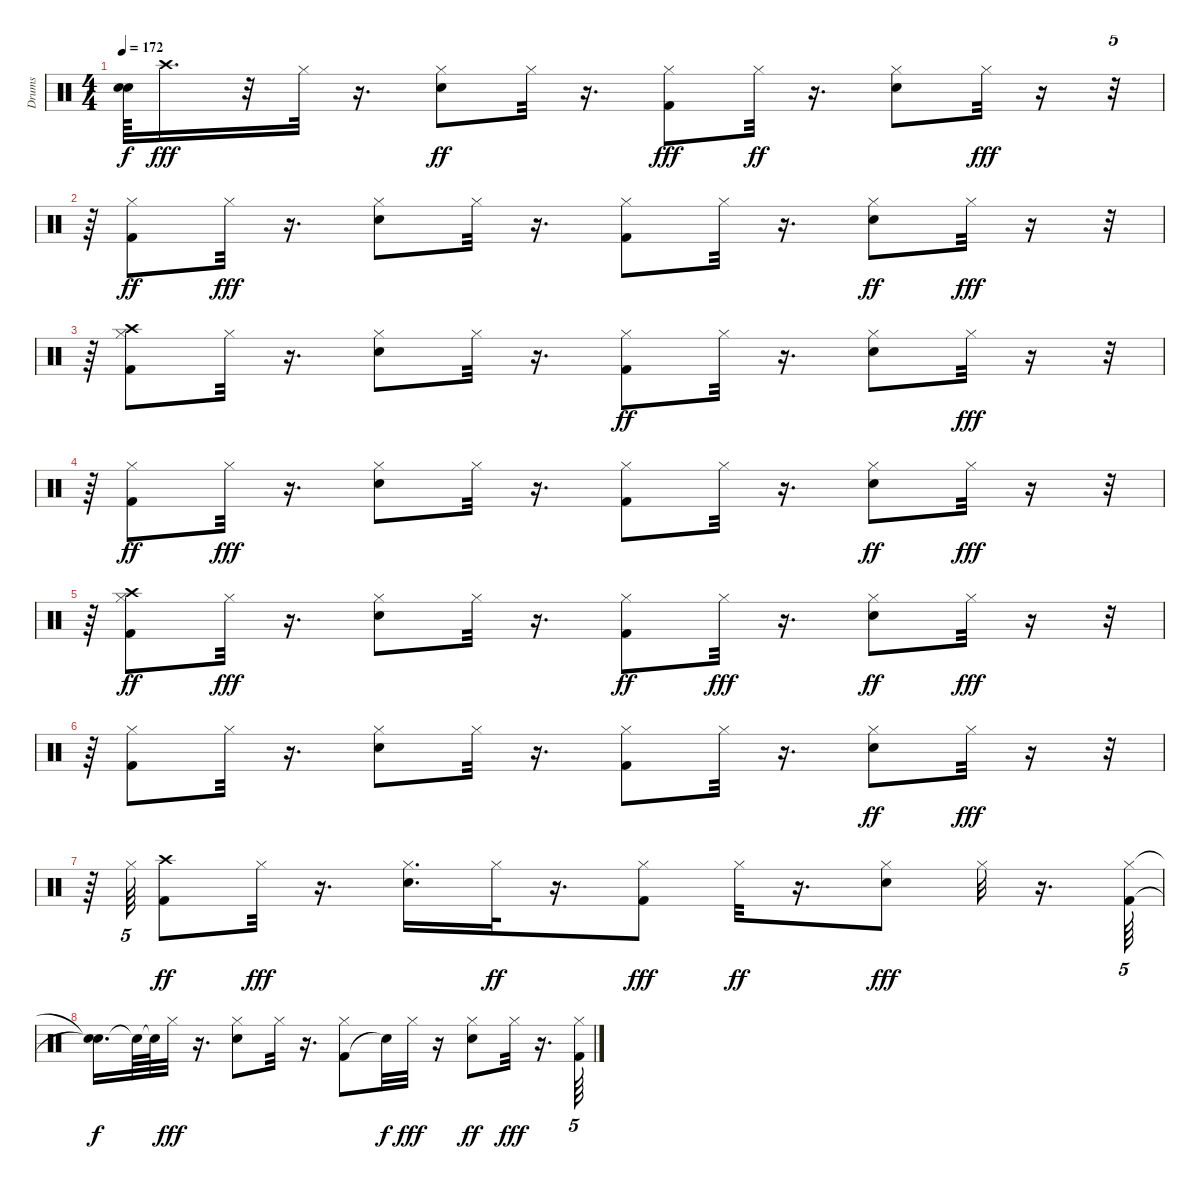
\track ("Drums" "Drums") {instrument percussion}
\staff {score}
\articulation defaults
\ts (4 4)
\tempo 172
\clef neutral
\ks c
("Snare (hit)"{t} "Snare (hit)"{t}).64{dy f} "Crash high (hit)".16{d dy fff} r.32 "Hi-Hat (closed)".32 r.16{d} ("Hi-Hat (closed)" "Electric Snare (hit)").8{dy ff} "Hi-Hat (closed)".32 r.16{d} ("Kick (hit) 2" "Hi-Hat (closed)").8{dy fff} "Hi-Hat (closed)".32{dy ff} r.16{d} ("Hi-Hat (closed)" "Electric Snare (hit)").8 "Hi-Hat (closed)".32{dy fff} r.16 r.32{tu (5 4)} |
r.64 ("Hi-Hat (closed)" "Kick (hit) 2").8{dy ff} "Hi-Hat (closed)".32{dy fff} r.16{d} ("Hi-Hat (closed)" "Electric Snare (hit)").8 "Hi-Hat (closed)".32 r.16{d} ("Hi-Hat (closed)" "Kick (hit) 2").8 "Hi-Hat (closed)".32 r.16{d} ("Hi-Hat (closed)" "Electric Snare (hit)").8{dy ff} "Hi-Hat (closed)".32{dy fff} r.16 r.32{tu (5 4)} |
r.64 ("Kick (hit) 2" "Crash high (hit)" "Hi-Hat (closed)").8 "Hi-Hat (closed)".32 r.16{d} ("Electric Snare (hit)" "Hi-Hat (closed)").8 "Hi-Hat (closed)".32 r.16{d} ("Hi-Hat (closed)" "Kick (hit) 2").8{dy ff} "Hi-Hat (closed)".32 r.16{d} ("Hi-Hat (closed)" "Electric Snare (hit)").8 "Hi-Hat (closed)".32{dy fff} r.16 r.32{tu (5 4)} |
r.64 ("Hi-Hat (closed)" "Kick (hit) 2").8{dy ff} "Hi-Hat (closed)".32{dy fff} r.16{d} ("Electric Snare (hit)" "Hi-Hat (closed)").8 "Hi-Hat (closed)".32 r.16{d} ("Hi-Hat (closed)" "Kick (hit) 2").8 "Hi-Hat (closed)".32 r.16{d} ("Hi-Hat (closed)" "Electric Snare (hit)").8{dy ff} "Hi-Hat (closed)".32{dy fff} r.16 r.32{tu (5 4)} |
r.64 ("Kick (hit) 2" "Hi-Hat (closed)" "Crash high (hit)").8{dy ff} "Hi-Hat (closed)".32{dy fff} r.16{d} ("Hi-Hat (closed)" "Electric Snare (hit)").8 "Hi-Hat (closed)".32 r.16{d} ("Hi-Hat (closed)" "Kick (hit) 2").8{dy ff} "Hi-Hat (closed)".32{dy fff} r.16{d} ("Hi-Hat (closed)" "Electric Snare (hit)").8{dy ff} "Hi-Hat (closed)".32{dy fff} r.16 r.32{tu (5 4)} |
r.64 ("Kick (hit) 2" "Hi-Hat (closed)").8 "Hi-Hat (closed)".32 r.16{d} ("Electric Snare (hit)" "Hi-Hat (closed)").8 "Hi-Hat (closed)".32 r.16{d} ("Kick (hit) 2" "Hi-Hat (closed)").8 "Hi-Hat (closed)".32 r.16{d} ("Hi-Hat (closed)" "Electric Snare (hit)").8{dy ff} "Hi-Hat (closed)".32{dy fff} r.16 r.32{tu (5 4)} |
r.64 "Hi-Hat (closed)".64{tu (5 4)} ("Kick (hit) 2" "Crash high (hit)").8{dy ff} "Hi-Hat (closed)".32{dy fff} r.16{d} ("Electric Snare (hit)" "Hi-Hat (closed)").16{d} "Hi-Hat (closed)".32{dy ff} r.16{d} ("Kick (hit) 2" "Hi-Hat (closed)").8{dy fff} "Hi-Hat (closed)".32{dy ff} r.16{d} ("Hi-Hat (closed)" "Electric Snare (hit)").8{dy fff} "Hi-Hat (closed)".32 r.16{d} ("Hi-Hat (closed)" "Kick (hit) 2").64{tu (5 4)} |
("Snare (hit)"{t} "Snare (hit)"{t}).16{d dy f} "Snare (hit)"{t}.64 "Snare (hit)"{t}.64 "Hi-Hat (closed)".32{dy fff} r.16{d} ("Electric Snare (hit)" "Hi-Hat (closed)").8 "Hi-Hat (closed)".32 r.16{d} ("Kick (hit) 2" "Hi-Hat (closed)").8 "Snare (hit)"{t}.32{dy f} "Hi-Hat (closed)".32{dy fff} r.16 ("Hi-Hat (closed)" "Electric Snare (hit)").8{dy ff} "Hi-Hat (closed)".32{dy fff} r.16{d} ("Kick (hit) 2" "Hi-Hat (closed)").64{tu (5 4)}
